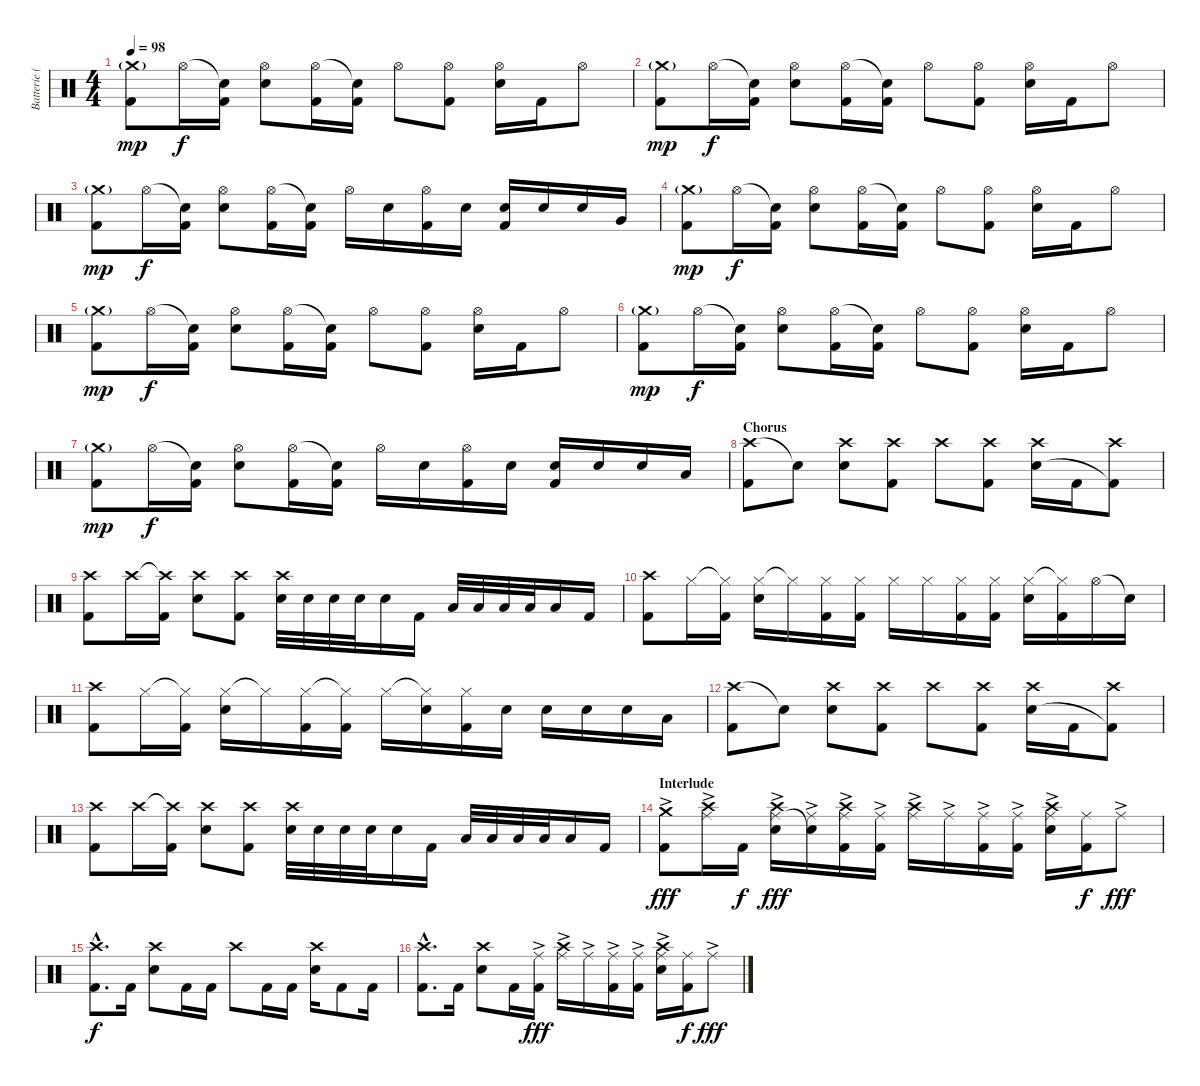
\track ("Batterie (Alfredo Hernandez)" "Batterie (") {instrument percussion}
\staff {score}
\articulation defaults
\ts (4 4)
\tempo 98
\clef neutral
\ks c
("Crash medium (hit)"{g} "Kick (hit) 2").8{dy mp} "Hi-Hat (open)".16{dy f} ("Snare (hit)"{t} "Kick (hit) 2").16 ("Hi-Hat (open)" "Electric Snare (hit)").8 ("Hi-Hat (open)" "Kick (hit) 2").16 ("Snare (hit)"{t} "Kick (hit) 2").16 "Hi-Hat (open)".8 ("Hi-Hat (open)" "Kick (hit) 2").8 ("Hi-Hat (open)" "Electric Snare (hit)").16 "Kick (hit) 2".16 "Hi-Hat (open)".8 |
("Crash medium (hit)"{g} "Kick (hit) 2").8{dy mp} "Hi-Hat (open)".16{dy f} ("Snare (hit)"{t} "Kick (hit) 2").16 ("Hi-Hat (open)" "Electric Snare (hit)").8 ("Hi-Hat (open)" "Kick (hit) 2").16 ("Snare (hit)"{t} "Kick (hit) 2").16 "Hi-Hat (open)".8 ("Hi-Hat (open)" "Kick (hit) 2").8 ("Hi-Hat (open)" "Electric Snare (hit)").16 "Kick (hit) 2".16 "Hi-Hat (open)".8 |
("Crash medium (hit)"{g} "Kick (hit) 2").8{dy mp} "Hi-Hat (open)".16{dy f} ("Snare (hit)"{t} "Kick (hit) 2").16 ("Hi-Hat (open)" "Electric Snare (hit)").8 ("Hi-Hat (open)" "Kick (hit) 2").16 ("Snare (hit)"{t} "Kick (hit) 2").16 "Hi-Hat (open)".16 "Electric Snare (hit)".16 ("Hi-Hat (open)" "Kick (hit) 2").16 "Electric Snare (hit)".16 ("Electric Snare (hit)" "Kick (hit) 2").16 "Electric Snare (hit)".16 "Electric Snare (hit)".16 "Very Low Tom (hit)".16 |
("Crash medium (hit)"{g} "Kick (hit) 2").8{dy mp} "Hi-Hat (open)".16{dy f} ("Snare (hit)"{t} "Kick (hit) 2").16 ("Hi-Hat (open)" "Electric Snare (hit)").8 ("Hi-Hat (open)" "Kick (hit) 2").16 ("Snare (hit)"{t} "Kick (hit) 2").16 "Hi-Hat (open)".8 ("Hi-Hat (open)" "Kick (hit) 2").8 ("Hi-Hat (open)" "Electric Snare (hit)").16 "Kick (hit) 2".16 "Hi-Hat (open)".8 |
("Crash medium (hit)"{g} "Kick (hit) 2").8{dy mp} "Hi-Hat (open)".16{dy f} ("Snare (hit)"{t} "Kick (hit) 2").16 ("Hi-Hat (open)" "Electric Snare (hit)").8 ("Hi-Hat (open)" "Kick (hit) 2").16 ("Snare (hit)"{t} "Kick (hit) 2").16 "Hi-Hat (open)".8 ("Hi-Hat (open)" "Kick (hit) 2").8 ("Hi-Hat (open)" "Electric Snare (hit)").16 "Kick (hit) 2".16 "Hi-Hat (open)".8 |
("Crash medium (hit)"{g} "Kick (hit) 2").8{dy mp} "Hi-Hat (open)".16{dy f} ("Snare (hit)"{t} "Kick (hit) 2").16 ("Hi-Hat (open)" "Electric Snare (hit)").8 ("Hi-Hat (open)" "Kick (hit) 2").16 ("Snare (hit)"{t} "Kick (hit) 2").16 "Hi-Hat (open)".8 ("Hi-Hat (open)" "Kick (hit) 2").8 ("Hi-Hat (open)" "Electric Snare (hit)").16 "Kick (hit) 2".16 "Hi-Hat (open)".8 |
("Crash medium (hit)"{g} "Kick (hit) 2").8{dy mp} "Hi-Hat (open)".16{dy f} ("Snare (hit)"{t} "Kick (hit) 2").16 ("Hi-Hat (open)" "Electric Snare (hit)").8 ("Hi-Hat (open)" "Kick (hit) 2").16 ("Snare (hit)"{t} "Kick (hit) 2").16 "Hi-Hat (open)".16 "Electric Snare (hit)".16 ("Hi-Hat (open)" "Kick (hit) 2").16 "Electric Snare (hit)".16 ("Electric Snare (hit)" "Kick (hit) 2").16 "Electric Snare (hit)".16 "Electric Snare (hit)".16 "Low Floor Tom (hit)".16 |
\section ("" "Chorus")
("Crash high (hit)" "Kick (hit) 2").8 "Snare (hit)"{t}.8 ("Crash high (hit)" "Electric Snare (hit)").8 ("Crash high (hit)" "Kick (hit) 2").8 "Crash high (hit)".8 ("Crash high (hit)" "Kick (hit) 2").8 ("Crash high (hit)" "Electric Snare (hit)").16 "Kick (hit) 2".16 ("Crash high (hit)" "Kick (hit) 2"{t}).8 |
("Crash high (hit)" "Kick (hit) 2").8 "Crash high (hit)".16 ("Crash high (hit)"{t} "Kick (hit) 2").16 ("Crash high (hit)" "Electric Snare (hit)").8 ("Crash high (hit)" "Kick (hit) 2").8 ("Crash high (hit)" "Electric Snare (hit)").32 "Electric Snare (hit)".32 "Electric Snare (hit)".32 "Electric Snare (hit)".32 "Electric Snare (hit)".16 "Kick (hit) 2".16 "Low Floor Tom (hit)".32 "Low Floor Tom (hit)".32 "Low Floor Tom (hit)".32 "Low Floor Tom (hit)".32 "Low Floor Tom (hit)".16 "Kick (hit) 2".16 |
("Crash high (hit)" "Kick (hit) 2").8 "Hi-Hat (closed)".16 ("Hi-Hat (closed)"{t} "Kick (hit) 2").16 ("Hi-Hat (closed)" "Electric Snare (hit)").16 "Hi-Hat (closed)"{t}.16 ("Hi-Hat (closed)" "Kick (hit) 2").16 ("Hi-Hat (closed)" "Kick (hit) 2").16 "Hi-Hat (closed)".16 "Hi-Hat (closed)".16 ("Hi-Hat (closed)" "Kick (hit) 2").16 ("Hi-Hat (closed)" "Kick (hit) 2").16 ("Hi-Hat (closed)" "Electric Snare (hit)").16 ("Hi-Hat (closed)"{t} "Kick (hit) 2").16 "Hi-Hat (open)".16 "Snare (hit)"{t}.16 |
("Crash high (hit)" "Kick (hit) 2").8 "Hi-Hat (closed)".16 ("Hi-Hat (closed)"{t} "Kick (hit) 2").16 ("Hi-Hat (closed)" "Electric Snare (hit)").16 "Hi-Hat (closed)"{t}.16 ("Hi-Hat (closed)" "Kick (hit) 2").16 ("Hi-Hat (closed)"{t} "Kick (hit) 2").16 "Hi-Hat (closed)".16 ("Hi-Hat (closed)"{t} "Electric Snare (hit)").16 ("Hi-Hat (closed)" "Kick (hit) 2").16 "Electric Snare (hit)".16 "Electric Snare (hit)".16 "Electric Snare (hit)".16 "Electric Snare (hit)".16 "Low Floor Tom (hit)".16 |
("Crash high (hit)" "Kick (hit) 2").8 "Snare (hit)"{t}.8 ("Crash high (hit)" "Electric Snare (hit)").8 ("Crash high (hit)" "Kick (hit) 2").8 "Crash high (hit)".8 ("Crash high (hit)" "Kick (hit) 2").8 ("Crash high (hit)" "Electric Snare (hit)").16 "Kick (hit) 2".16 ("Crash high (hit)" "Kick (hit) 2"{t}).8 |
("Crash high (hit)" "Kick (hit) 2").8 "Crash high (hit)".16 ("Crash high (hit)"{t} "Kick (hit) 2").16 ("Crash high (hit)" "Electric Snare (hit)").8 ("Crash high (hit)" "Kick (hit) 2").8 ("Crash high (hit)" "Electric Snare (hit)").32 "Electric Snare (hit)".32 "Electric Snare (hit)".32 "Electric Snare (hit)".32 "Electric Snare (hit)".16 "Kick (hit) 2".16 "Low Floor Tom (hit)".32 "Low Floor Tom (hit)".32 "Low Floor Tom (hit)".32 "Low Floor Tom (hit)".32 "Low Floor Tom (hit)".16 "Kick (hit) 2".16 |
\section ("" "Interlude")
("Crash medium (hit)"{ac} "Kick (hit) 2").8{dy fff} ("Crash high (hit)" "Ride (middle)"{ac}).16 "Kick (hit) 2".16{dy f} ("Crash high (hit)" "Ride (middle)"{ac} "Electric Snare (hit)").16{dy fff} ("Ride (middle)"{ac} "Snare (hit)"{t}).16 ("Crash high (hit)" "Ride (middle)"{ac} "Kick (hit) 2").16 ("Ride (middle)"{ac} "Kick (hit) 2").16 ("Crash high (hit)" "Ride (middle)"{ac}).16 "Ride (middle)"{ac}.16 ("Ride (middle)"{ac} "Kick (hit) 2").16 ("Ride (middle)"{ac} "Kick (hit) 2").16 ("Crash high (hit)" "Ride (middle)"{ac} "Electric Snare (hit)").16 ("Ride (middle)" "Kick (hit) 2").16{dy f} "Ride (middle)"{ac}.8{dy fff} |
("Crash high (hit)"{hac} "Kick (hit) 2"{hac}).8{d dy f} "Kick (hit) 2".16 ("Crash high (hit)" "Electric Snare (hit)").8 "Kick (hit) 2".16 "Kick (hit) 2".16 "Crash high (hit)".8 "Kick (hit) 2".16 "Kick (hit) 2".16 ("Crash high (hit)" "Electric Snare (hit)").16 "Kick (hit) 2".8 "Kick (hit) 2".16 |
("Crash high (hit)"{hac} "Kick (hit) 2"{hac}).8{d} "Kick (hit) 2".16 ("Crash high (hit)" "Electric Snare (hit)").8 "Kick (hit) 2".16 ("Ride (middle)"{ac} "Kick (hit) 2").16{dy fff} ("Crash high (hit)" "Ride (middle)"{ac}).16 "Ride (middle)"{ac}.16 ("Ride (middle)"{ac} "Kick (hit) 2").16 ("Ride (middle)"{ac} "Kick (hit) 2").16 ("Crash high (hit)" "Ride (middle)"{ac} "Electric Snare (hit)").16 ("Ride (middle)" "Kick (hit) 2").16{dy f} "Ride (middle)"{ac}.8{dy fff}
